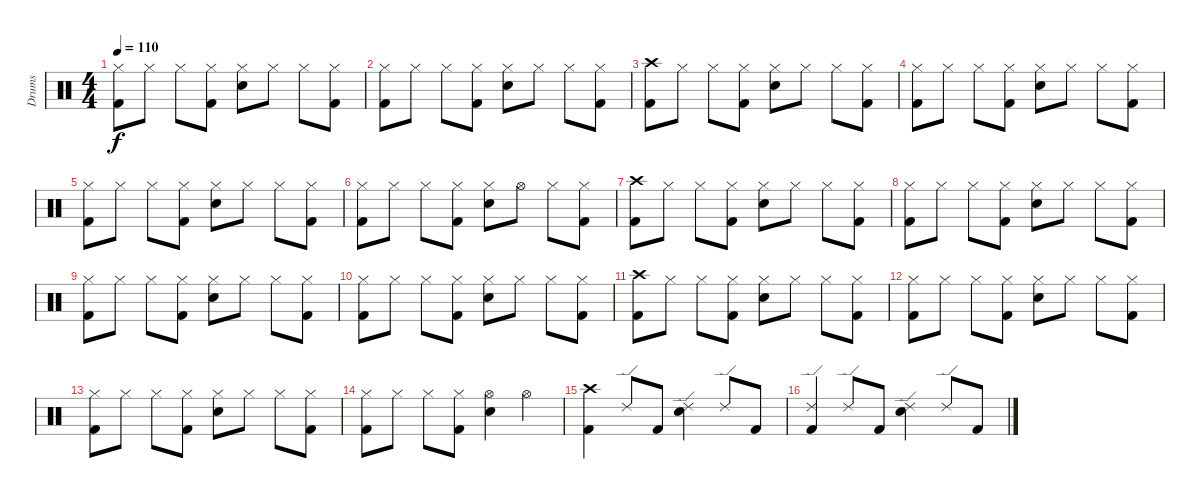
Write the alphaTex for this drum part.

\track ("Drums" "Drums") {instrument percussion}
\staff {score}
\articulation defaults
\ts (4 4)
\tempo 110
\clef neutral
\ks c
("Kick (hit) 2" "Hi-Hat (closed)").8{dy f} "Hi-Hat (closed)".8 "Hi-Hat (closed)".8 ("Kick (hit) 2" "Hi-Hat (closed)").8 ("Hi-Hat (closed)" "Snare (hit) 2").8 "Hi-Hat (closed)".8 "Hi-Hat (closed)".8 ("Kick (hit) 2" "Hi-Hat (closed)").8 |
("Kick (hit) 2" "Hi-Hat (closed)").8 "Hi-Hat (closed)".8 "Hi-Hat (closed)".8 ("Kick (hit) 2" "Hi-Hat (closed)").8 ("Hi-Hat (closed)" "Snare (hit) 2").8 "Hi-Hat (closed)".8 "Hi-Hat (closed)".8 ("Kick (hit) 2" "Hi-Hat (closed)").8 |
("Kick (hit) 2" "Crash high (hit)").8 "Hi-Hat (closed)".8 "Hi-Hat (closed)".8 ("Kick (hit) 2" "Hi-Hat (closed)").8 ("Hi-Hat (closed)" "Snare (hit) 2").8 "Hi-Hat (closed)".8 "Hi-Hat (closed)".8 ("Kick (hit) 2" "Hi-Hat (closed)").8 |
("Kick (hit) 2" "Hi-Hat (closed)").8 "Hi-Hat (closed)".8 "Hi-Hat (closed)".8 ("Kick (hit) 2" "Hi-Hat (closed)").8 ("Hi-Hat (closed)" "Snare (hit) 2").8 "Hi-Hat (closed)".8 "Hi-Hat (closed)".8 ("Kick (hit) 2" "Hi-Hat (closed)").8 |
("Kick (hit) 2" "Hi-Hat (closed)").8 "Hi-Hat (closed)".8 "Hi-Hat (closed)".8 ("Kick (hit) 2" "Hi-Hat (closed)").8 ("Hi-Hat (closed)" "Snare (hit) 2").8 "Hi-Hat (closed)".8 "Hi-Hat (closed)".8 ("Kick (hit) 2" "Hi-Hat (closed)").8 |
("Kick (hit) 2" "Hi-Hat (closed)").8 "Hi-Hat (closed)".8 "Hi-Hat (closed)".8 ("Kick (hit) 2" "Hi-Hat (closed)").8 ("Hi-Hat (closed)" "Snare (hit) 2").8 "Hi-Hat (open)".8 "Hi-Hat (closed)".8 ("Kick (hit) 2" "Hi-Hat (closed)").8 |
("Kick (hit) 2" "Crash high (hit)").8 "Hi-Hat (closed)".8 "Hi-Hat (closed)".8 ("Kick (hit) 2" "Hi-Hat (closed)").8 ("Hi-Hat (closed)" "Snare (hit) 2").8 "Hi-Hat (closed)".8 "Hi-Hat (closed)".8 ("Kick (hit) 2" "Hi-Hat (closed)").8 |
("Kick (hit) 2" "Hi-Hat (closed)").8 "Hi-Hat (closed)".8 "Hi-Hat (closed)".8 ("Kick (hit) 2" "Hi-Hat (closed)").8 ("Hi-Hat (closed)" "Snare (hit) 2").8 "Hi-Hat (closed)".8 "Hi-Hat (closed)".8 ("Kick (hit) 2" "Hi-Hat (closed)").8 |
("Kick (hit) 2" "Hi-Hat (closed)").8 "Hi-Hat (closed)".8 "Hi-Hat (closed)".8 ("Kick (hit) 2" "Hi-Hat (closed)").8 ("Hi-Hat (closed)" "Snare (hit) 2").8 "Hi-Hat (closed)".8 "Hi-Hat (closed)".8 ("Kick (hit) 2" "Hi-Hat (closed)").8 |
("Kick (hit) 2" "Hi-Hat (closed)").8 "Hi-Hat (closed)".8 "Hi-Hat (closed)".8 ("Kick (hit) 2" "Hi-Hat (closed)").8 ("Hi-Hat (closed)" "Snare (hit) 2").8 "Hi-Hat (closed)".8 "Hi-Hat (closed)".8 ("Kick (hit) 2" "Hi-Hat (closed)").8 |
("Kick (hit) 2" "Crash high (hit)").8 "Hi-Hat (closed)".8 "Hi-Hat (closed)".8 ("Kick (hit) 2" "Hi-Hat (closed)").8 ("Hi-Hat (closed)" "Snare (hit) 2").8 "Hi-Hat (closed)".8 "Hi-Hat (closed)".8 ("Kick (hit) 2" "Hi-Hat (closed)").8 |
("Kick (hit) 2" "Hi-Hat (closed)").8 "Hi-Hat (closed)".8 "Hi-Hat (closed)".8 ("Kick (hit) 2" "Hi-Hat (closed)").8 ("Hi-Hat (closed)" "Snare (hit) 2").8 "Hi-Hat (closed)".8 "Hi-Hat (closed)".8 ("Kick (hit) 2" "Hi-Hat (closed)").8 |
("Kick (hit) 2" "Hi-Hat (closed)").8 "Hi-Hat (closed)".8 "Hi-Hat (closed)".8 ("Kick (hit) 2" "Hi-Hat (closed)").8 ("Hi-Hat (closed)" "Snare (hit) 2").8 "Hi-Hat (closed)".8 "Hi-Hat (closed)".8 ("Kick (hit) 2" "Hi-Hat (closed)").8 |
("Kick (hit) 2" "Hi-Hat (closed)").8 "Hi-Hat (closed)".8 "Hi-Hat (closed)".8 ("Kick (hit) 2" "Hi-Hat (closed)").8 ("Hi-Hat (open)" "Snare (hit) 2").4 "Hi-Hat (open)".4 |
("Kick (hit) 2" "Crash high (hit)").4 "Ride (edge) 2".8 "Kick (hit) 2".8 ("Ride (edge) 2" "Snare (hit) 2").4 "Ride (edge) 2".8 "Kick (hit) 2".8 |
("Kick (hit) 2" "Ride (edge) 2").4 "Ride (edge) 2".8 "Kick (hit) 2".8 ("Ride (edge) 2" "Snare (hit) 2").4 "Ride (edge) 2".8 "Kick (hit) 2".8
